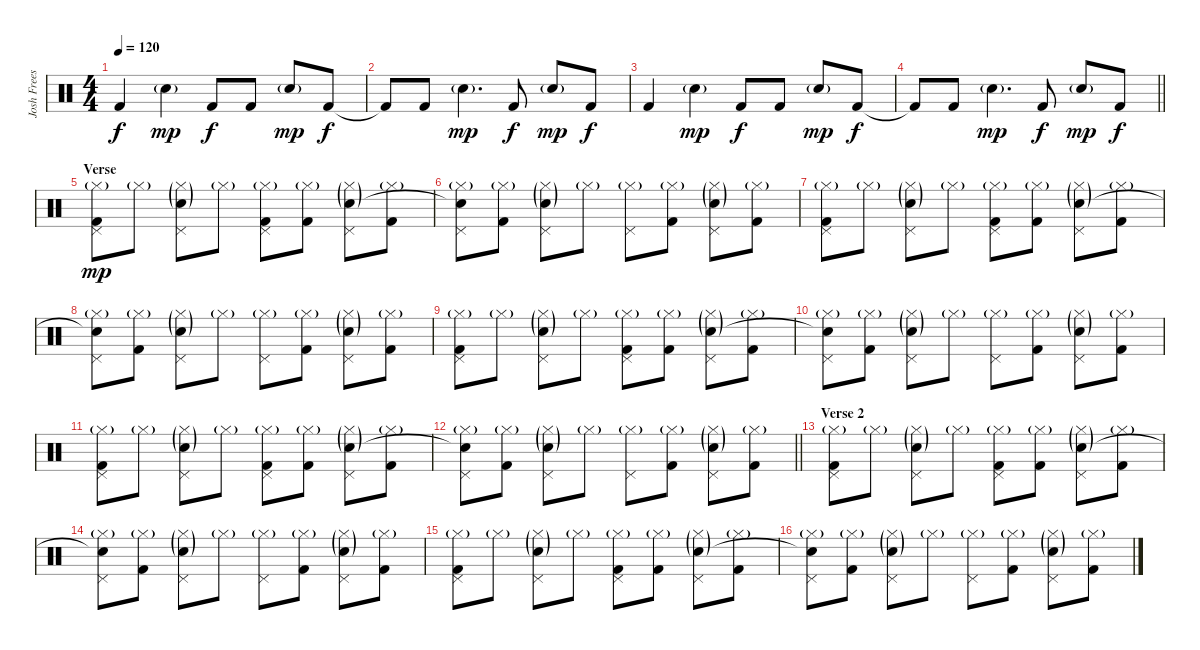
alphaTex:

\track ("Josh Freese (Drums)" "Josh Frees") {instrument percussion}
\staff {score}
\articulation defaults
\ts (4 4)
\section ("" "")
\tempo 120
\clef neutral
\ks c "Kick (hit) 2".4{dy f} "Snare (hit) 2"{g}.4{dy mp} "Kick (hit) 2".8{dy f} "Kick (hit) 2".8 "Snare (hit) 2"{g}.8{dy mp} "Kick (hit) 2".8{dy f}
|
"Kick (hit) 2"{t}.8 "Kick (hit) 2".8 "Snare (hit) 2"{g}.4{d dy mp} "Kick (hit) 2".8{dy f} "Snare (hit) 2"{g}.8{dy mp} "Kick (hit) 2".8{dy f} |
"Kick (hit) 2".4 "Snare (hit) 2"{g}.4{dy mp} "Kick (hit) 2".8{dy f} "Kick (hit) 2".8 "Snare (hit) 2"{g}.8{dy mp} "Kick (hit) 2".8{dy f} |
\barLineRight lightlight "Kick (hit) 2"{t}.8 "Kick (hit) 2".8 "Snare (hit) 2"{g}.4{d dy mp} "Kick (hit) 2".8{dy f} "Snare (hit) 2"{g}.8{dy mp} "Kick (hit) 2".8{dy f}
|
\section ("" "Verse")
("Pedal Hi-Hat (hit)" "Hi-Hat (closed)"{g} "Kick (hit) 2").8{dy mp} "Hi-Hat (closed)"{g}.8 ("Pedal Hi-Hat (hit)" "Hi-Hat (closed)"{g} "Snare (hit) 2"{g}).8 "Hi-Hat (closed)"{g}.8 ("Pedal Hi-Hat (hit)" "Hi-Hat (closed)"{g} "Kick (hit) 2").8 ("Hi-Hat (closed)"{g} "Kick (hit) 2").8 ("Pedal Hi-Hat (hit)" "Hi-Hat (closed)"{g} "Snare (hit) 2"{g}).8 ("Hi-Hat (closed)"{g} "Kick (hit) 2").8 |
("Pedal Hi-Hat (hit)" "Hi-Hat (closed)"{g} "Snare (hit)"{t}).8 ("Hi-Hat (closed)"{g} "Kick (hit) 2").8 ("Pedal Hi-Hat (hit)" "Hi-Hat (closed)"{g} "Snare (hit) 2"{g}).8 "Hi-Hat (closed)"{g}.8 ("Pedal Hi-Hat (hit)" "Hi-Hat (closed)"{g}).8 ("Hi-Hat (closed)"{g} "Kick (hit) 2").8 ("Pedal Hi-Hat (hit)" "Hi-Hat (closed)"{g} "Snare (hit) 2"{g}).8 ("Hi-Hat (closed)"{g} "Kick (hit) 2").8 |
("Pedal Hi-Hat (hit)" "Hi-Hat (closed)"{g} "Kick (hit) 2").8 "Hi-Hat (closed)"{g}.8 ("Pedal Hi-Hat (hit)" "Hi-Hat (closed)"{g} "Snare (hit) 2"{g}).8 "Hi-Hat (closed)"{g}.8 ("Pedal Hi-Hat (hit)" "Hi-Hat (closed)"{g} "Kick (hit) 2").8 ("Hi-Hat (closed)"{g} "Kick (hit) 2").8 ("Pedal Hi-Hat (hit)" "Hi-Hat (closed)"{g} "Snare (hit) 2"{g}).8 ("Hi-Hat (closed)"{g} "Kick (hit) 2").8 |
("Pedal Hi-Hat (hit)" "Hi-Hat (closed)"{g} "Snare (hit)"{t}).8 ("Hi-Hat (closed)"{g} "Kick (hit) 2").8 ("Pedal Hi-Hat (hit)" "Hi-Hat (closed)"{g} "Snare (hit) 2"{g}).8 "Hi-Hat (closed)"{g}.8 ("Pedal Hi-Hat (hit)" "Hi-Hat (closed)"{g}).8 ("Hi-Hat (closed)"{g} "Kick (hit) 2").8 ("Pedal Hi-Hat (hit)" "Hi-Hat (closed)"{g} "Snare (hit) 2"{g}).8 ("Hi-Hat (closed)"{g} "Kick (hit) 2").8 |
("Pedal Hi-Hat (hit)" "Hi-Hat (closed)"{g} "Kick (hit) 2").8 "Hi-Hat (closed)"{g}.8 ("Pedal Hi-Hat (hit)" "Hi-Hat (closed)"{g} "Snare (hit) 2"{g}).8 "Hi-Hat (closed)"{g}.8 ("Pedal Hi-Hat (hit)" "Hi-Hat (closed)"{g} "Kick (hit) 2").8 ("Hi-Hat (closed)"{g} "Kick (hit) 2").8 ("Pedal Hi-Hat (hit)" "Hi-Hat (closed)"{g} "Snare (hit) 2"{g}).8 ("Hi-Hat (closed)"{g} "Kick (hit) 2").8 |
("Pedal Hi-Hat (hit)" "Hi-Hat (closed)"{g} "Snare (hit)"{t}).8 ("Hi-Hat (closed)"{g} "Kick (hit) 2").8 ("Pedal Hi-Hat (hit)" "Hi-Hat (closed)"{g} "Snare (hit) 2"{g}).8 "Hi-Hat (closed)"{g}.8 ("Pedal Hi-Hat (hit)" "Hi-Hat (closed)"{g}).8 ("Hi-Hat (closed)"{g} "Kick (hit) 2").8 ("Pedal Hi-Hat (hit)" "Hi-Hat (closed)"{g} "Snare (hit) 2"{g}).8 ("Hi-Hat (closed)"{g} "Kick (hit) 2").8 |
("Pedal Hi-Hat (hit)" "Hi-Hat (closed)"{g} "Kick (hit) 2").8 "Hi-Hat (closed)"{g}.8 ("Pedal Hi-Hat (hit)" "Hi-Hat (closed)"{g} "Snare (hit) 2"{g}).8 "Hi-Hat (closed)"{g}.8 ("Pedal Hi-Hat (hit)" "Hi-Hat (closed)"{g} "Kick (hit) 2").8 ("Hi-Hat (closed)"{g} "Kick (hit) 2").8 ("Pedal Hi-Hat (hit)" "Hi-Hat (closed)"{g} "Snare (hit) 2"{g}).8 ("Hi-Hat (closed)"{g} "Kick (hit) 2").8 |
\barLineRight lightlight
("Pedal Hi-Hat (hit)" "Hi-Hat (closed)"{g} "Snare (hit)"{t}).8 ("Hi-Hat (closed)"{g} "Kick (hit) 2").8 ("Pedal Hi-Hat (hit)" "Hi-Hat (closed)"{g} "Snare (hit) 2"{g}).8 "Hi-Hat (closed)"{g}.8 ("Pedal Hi-Hat (hit)" "Hi-Hat (closed)"{g}).8 ("Hi-Hat (closed)"{g} "Kick (hit) 2").8 ("Pedal Hi-Hat (hit)" "Hi-Hat (closed)"{g} "Snare (hit) 2"{g}).8 ("Hi-Hat (closed)"{g} "Kick (hit) 2").8 |
\section ("" "Verse 2")
("Pedal Hi-Hat (hit)" "Hi-Hat (closed)"{g} "Kick (hit) 2").8 "Hi-Hat (closed)"{g}.8 ("Pedal Hi-Hat (hit)" "Hi-Hat (closed)"{g} "Snare (hit) 2"{g}).8 "Hi-Hat (closed)"{g}.8 ("Pedal Hi-Hat (hit)" "Hi-Hat (closed)"{g} "Kick (hit) 2").8 ("Hi-Hat (closed)"{g} "Kick (hit) 2").8 ("Pedal Hi-Hat (hit)" "Hi-Hat (closed)"{g} "Snare (hit) 2"{g}).8 ("Hi-Hat (closed)"{g} "Kick (hit) 2").8 |
("Pedal Hi-Hat (hit)" "Hi-Hat (closed)"{g} "Snare (hit)"{t}).8 ("Hi-Hat (closed)"{g} "Kick (hit) 2").8 ("Pedal Hi-Hat (hit)" "Hi-Hat (closed)"{g} "Snare (hit) 2"{g}).8 "Hi-Hat (closed)"{g}.8 ("Pedal Hi-Hat (hit)" "Hi-Hat (closed)"{g}).8 ("Hi-Hat (closed)"{g} "Kick (hit) 2").8 ("Pedal Hi-Hat (hit)" "Hi-Hat (closed)"{g} "Snare (hit) 2"{g}).8 ("Hi-Hat (closed)"{g} "Kick (hit) 2").8 |
("Pedal Hi-Hat (hit)" "Hi-Hat (closed)"{g} "Kick (hit) 2").8 "Hi-Hat (closed)"{g}.8 ("Pedal Hi-Hat (hit)" "Hi-Hat (closed)"{g} "Snare (hit) 2"{g}).8 "Hi-Hat (closed)"{g}.8 ("Pedal Hi-Hat (hit)" "Hi-Hat (closed)"{g} "Kick (hit) 2").8 ("Hi-Hat (closed)"{g} "Kick (hit) 2").8 ("Pedal Hi-Hat (hit)" "Hi-Hat (closed)"{g} "Snare (hit) 2"{g}).8 ("Hi-Hat (closed)"{g} "Kick (hit) 2").8 |
("Pedal Hi-Hat (hit)" "Hi-Hat (closed)"{g} "Snare (hit)"{t}).8 ("Hi-Hat (closed)"{g} "Kick (hit) 2").8 ("Pedal Hi-Hat (hit)" "Hi-Hat (closed)"{g} "Snare (hit) 2"{g}).8 "Hi-Hat (closed)"{g}.8 ("Pedal Hi-Hat (hit)" "Hi-Hat (closed)"{g}).8 ("Hi-Hat (closed)"{g} "Kick (hit) 2").8 ("Pedal Hi-Hat (hit)" "Hi-Hat (closed)"{g} "Snare (hit) 2"{g}).8 ("Hi-Hat (closed)"{g} "Kick (hit) 2").8
